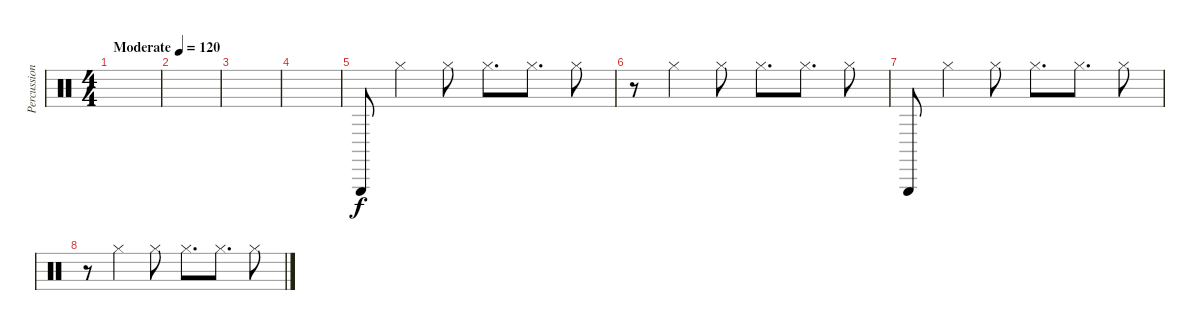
\track ("Percussion" "Percussion") {instrument percussion}
\staff {score}
\articulation defaults
\ts (4 4)
\tempo (120 "Moderate")
\clef neutral
\ks c
|
|
|
|
"Triangle (hit)".8 "Hi-Hat (closed)".4 "Hi-Hat (closed)".8 "Hi-Hat (closed)".8{d} "Hi-Hat (closed)".8{d} "Hi-Hat (closed)".8 |
r.8 "Hi-Hat (closed)".4 "Hi-Hat (closed)".8 "Hi-Hat (closed)".8{d} "Hi-Hat (closed)".8{d} "Hi-Hat (closed)".8 |
"Triangle (hit)".8 "Hi-Hat (closed)".4 "Hi-Hat (closed)".8 "Hi-Hat (closed)".8{d} "Hi-Hat (closed)".8{d} "Hi-Hat (closed)".8 |
r.8 "Hi-Hat (closed)".4 "Hi-Hat (closed)".8 "Hi-Hat (closed)".8{d} "Hi-Hat (closed)".8{d} "Hi-Hat (closed)".8
